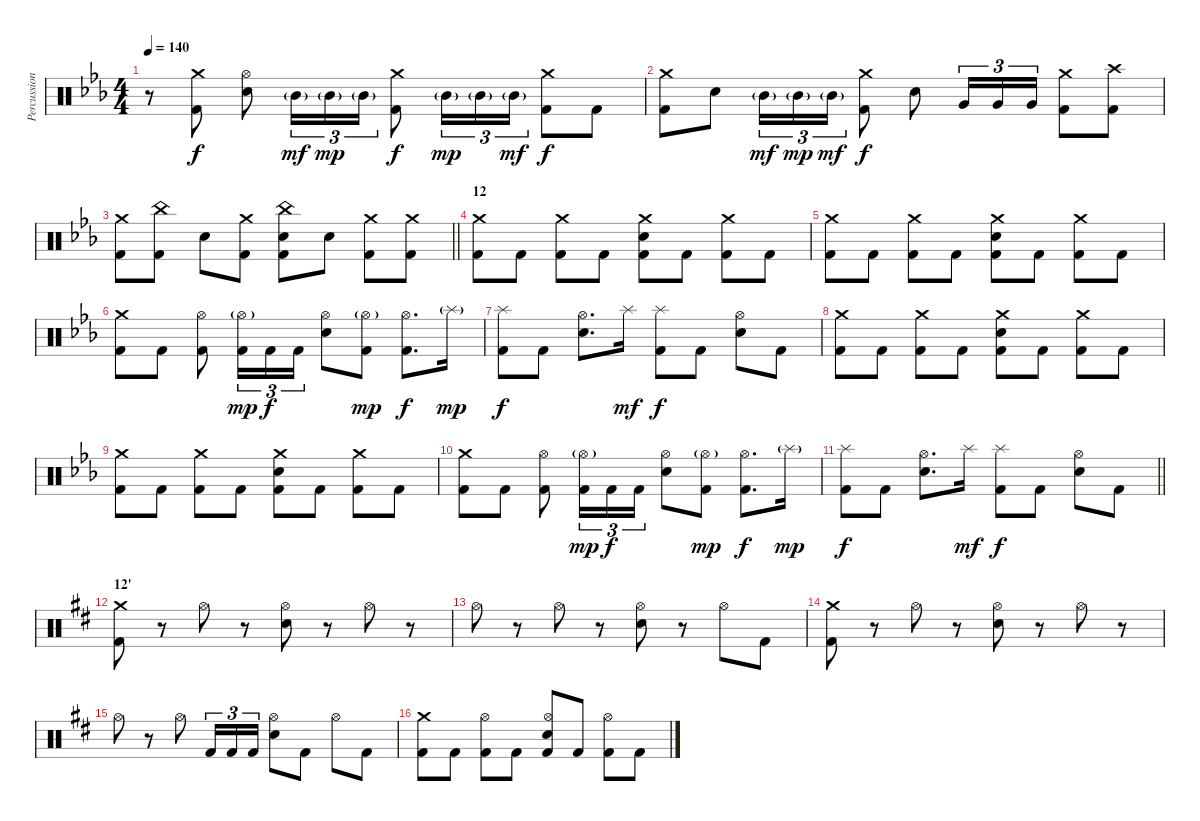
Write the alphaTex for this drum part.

\track ("Percussion" "Percussion") {instrument percussion}
\staff {score}
\articulation defaults
\ts (4 4)
\tempo 140
\clef neutral
\ks cminor
r.8{dy f} ("Crash medium (hit)" "Kick (hit) 2").8 ("Hi-Hat (open)" "Snare (hit) 2").8 "Mid Tom (hit)"{g}.16{tu (3 2) dy mf} "Mid Tom (hit)"{g}.16{tu (3 2) dy mp} "Mid Tom (hit)"{g}.16{tu (3 2)} ("Crash medium (hit)" "Kick (hit) 2").8{dy f} "Mid Tom (hit)"{g}.16{tu (3 2) dy mp} "Mid Tom (hit)"{g}.16{tu (3 2)} "Mid Tom (hit)"{g}.16{tu (3 2) dy mf} ("Crash medium (hit)" "Kick (hit) 2").8{dy f} "Kick (hit) 2".8 |
("Crash medium (hit)" "Kick (hit) 2").8 "Snare (hit) 2".8 "Mid Tom (hit)"{g}.16{tu (3 2) dy mf} "Mid Tom (hit)"{g}.16{tu (3 2) dy mp} "Mid Tom (hit)"{g}.16{tu (3 2) dy mf} ("Crash medium (hit)" "Kick (hit) 2").8{dy f} "Snare (hit) 2".8 "Very Low Tom (hit)".16{tu (3 2)} "Very Low Tom (hit)".16{tu (3 2)} "Very Low Tom (hit)".16{tu (3 2)} ("Crash medium (hit)" "Kick (hit) 2").8 ("Crash high (hit)" "Kick (hit) 2").8 |
\barLineRight lightlight
("Crash medium (hit)" "Kick (hit) 2").8 ("China (hit)" "Kick (hit) 2").8 "Snare (hit) 2".8 ("Crash medium (hit)" "Kick (hit) 2").8 ("China (hit)" "Snare (hit) 2" "Kick (hit) 2").8 "Snare (hit) 2".8 ("Crash medium (hit)" "Kick (hit) 2").8 ("Crash medium (hit)" "Kick (hit) 2").8 |
\section ("" "12")
("Crash medium (hit)" "Kick (hit) 2").8 "Kick (hit) 2".8 ("Crash medium (hit)" "Kick (hit) 2").8 "Kick (hit) 2".8 ("Crash medium (hit)" "Snare (hit) 2" "Kick (hit) 2").8 "Kick (hit) 2".8 ("Crash medium (hit)" "Kick (hit) 2").8 "Kick (hit) 2".8 |
("Crash medium (hit)" "Kick (hit) 2").8 "Kick (hit) 2".8 ("Crash medium (hit)" "Kick (hit) 2").8 "Kick (hit) 2".8 ("Crash medium (hit)" "Snare (hit) 2" "Kick (hit) 2").8 "Kick (hit) 2".8 ("Crash medium (hit)" "Kick (hit) 2").8 "Kick (hit) 2".8 |
("Crash medium (hit)" "Kick (hit) 2").8 "Kick (hit) 2".8 ("Hi-Hat (open)" "Kick (hit) 2").8 ("Hi-Hat (open)"{g} "Kick (hit) 2").16{tu (3 2) dy mp} "Kick (hit) 2".16{tu (3 2) dy f} "Kick (hit) 2".16{tu (3 2)} ("Hi-Hat (open)" "Snare (hit) 2").8 ("Hi-Hat (open)"{g} "Kick (hit) 2").8{dy mp} ("Hi-Hat (open)" "Kick (hit) 2").8{d dy f} "Splash (hit)"{g}.16{dy mp} |
("Splash (hit)" "Kick (hit) 2").8{dy f} "Kick (hit) 2".8 ("Hi-Hat (open)" "Snare (hit) 2").8{d} "Splash (hit)".16{dy mf} ("Splash (hit)" "Kick (hit) 2").8{dy f} "Kick (hit) 2".8 ("Hi-Hat (open)" "Snare (hit) 2").8 "Kick (hit) 2".8 |
("Crash medium (hit)" "Kick (hit) 2").8 "Kick (hit) 2".8 ("Crash medium (hit)" "Kick (hit) 2").8 "Kick (hit) 2".8 ("Crash medium (hit)" "Snare (hit) 2" "Kick (hit) 2").8 "Kick (hit) 2".8 ("Crash medium (hit)" "Kick (hit) 2").8 "Kick (hit) 2".8 |
("Crash medium (hit)" "Kick (hit) 2").8 "Kick (hit) 2".8 ("Crash medium (hit)" "Kick (hit) 2").8 "Kick (hit) 2".8 ("Crash medium (hit)" "Snare (hit) 2" "Kick (hit) 2").8 "Kick (hit) 2".8 ("Crash medium (hit)" "Kick (hit) 2").8 "Kick (hit) 2".8 |
("Crash medium (hit)" "Kick (hit) 2").8 "Kick (hit) 2".8 ("Hi-Hat (open)" "Kick (hit) 2").8 ("Hi-Hat (open)"{g} "Kick (hit) 2").16{tu (3 2) dy mp} "Kick (hit) 2".16{tu (3 2) dy f} "Kick (hit) 2".16{tu (3 2)} ("Hi-Hat (open)" "Snare (hit) 2").8 ("Hi-Hat (open)"{g} "Kick (hit) 2").8{dy mp} ("Hi-Hat (open)" "Kick (hit) 2").8{d dy f} "Splash (hit)"{g}.16{dy mp} |
\barLineRight lightlight
("Splash (hit)" "Kick (hit) 2").8{dy f} "Kick (hit) 2".8 ("Hi-Hat (open)" "Snare (hit) 2").8{d} "Splash (hit)".16{dy mf} ("Splash (hit)" "Kick (hit) 2").8{dy f} "Kick (hit) 2".8 ("Hi-Hat (open)" "Snare (hit) 2").8 "Kick (hit) 2".8 |
\section ("" "12'")
\ks bminor
("Crash medium (hit)" "Kick (hit) 2").8 r.8 "Hi-Hat (open)".8 r.8 ("Hi-Hat (open)" "Snare (hit) 2").8 r.8 "Hi-Hat (open)".8 r.8 |
"Hi-Hat (open)".8 r.8 "Hi-Hat (open)".8 r.8 ("Hi-Hat (open)" "Snare (hit) 2").8 r.8 "Hi-Hat (open)".8 "Kick (hit) 2".8 |
("Crash medium (hit)" "Kick (hit) 2").8 r.8 "Hi-Hat (open)".8 r.8 ("Hi-Hat (open)" "Snare (hit) 2").8 r.8 "Hi-Hat (open)".8 r.8 |
"Hi-Hat (open)".8 r.8 "Hi-Hat (open)".8 "Kick (hit) 2".16{tu (3 2)} "Kick (hit) 2".16{tu (3 2)} "Kick (hit) 2".16{tu (3 2)} ("Hi-Hat (open)" "Snare (hit) 2").8 "Kick (hit) 2".8 "Hi-Hat (open)".8 "Kick (hit) 2".8 |
("Crash medium (hit)" "Kick (hit) 2").8 "Kick (hit) 2".8 ("Hi-Hat (open)" "Kick (hit) 2").8 "Kick (hit) 2".8 ("Hi-Hat (open)" "Snare (hit) 2" "Kick (hit) 2").8 "Kick (hit) 2".8 ("Hi-Hat (open)" "Kick (hit) 2").8 "Kick (hit) 2".8
